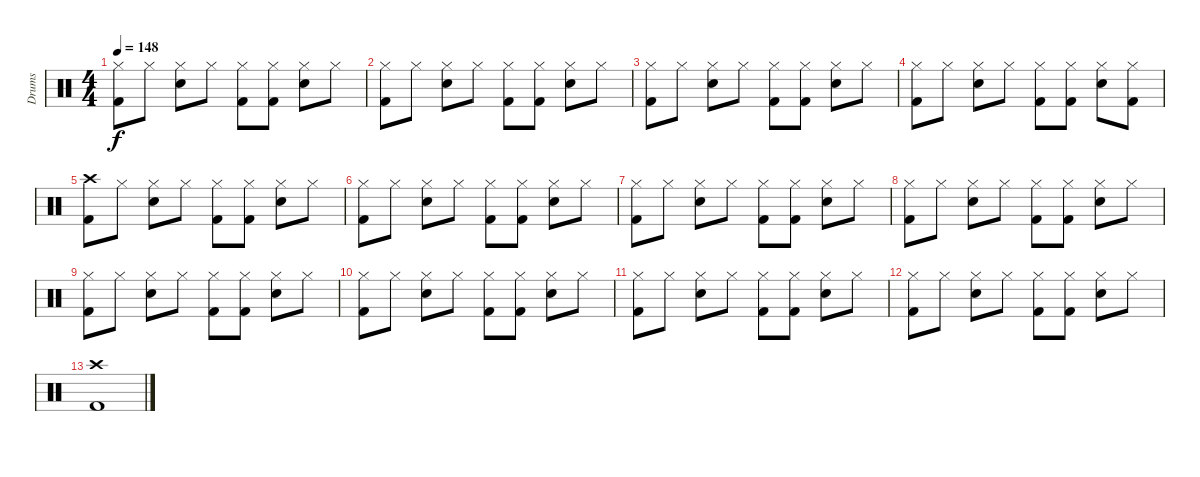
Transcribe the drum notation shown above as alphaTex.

\track ("Drums " "Drums ") {instrument percussion}
\staff {score}
\articulation defaults
\ts (4 4)
\tempo 148
\clef neutral
\ks c
("Hi-Hat (closed)" "Kick (hit) 2").8{dy f} "Hi-Hat (closed)".8 ("Hi-Hat (closed)" "Snare (hit) 2").8 "Hi-Hat (closed)".8 ("Hi-Hat (closed)" "Kick (hit) 2").8 ("Hi-Hat (closed)" "Kick (hit) 2").8 ("Hi-Hat (closed)" "Snare (hit) 2").8 "Hi-Hat (closed)".8 |
("Hi-Hat (closed)" "Kick (hit) 2").8 "Hi-Hat (closed)".8 ("Hi-Hat (closed)" "Snare (hit) 2").8 "Hi-Hat (closed)".8 ("Hi-Hat (closed)" "Kick (hit) 2").8 ("Hi-Hat (closed)" "Kick (hit) 2").8 ("Hi-Hat (closed)" "Snare (hit) 2").8 "Hi-Hat (closed)".8 |
("Hi-Hat (closed)" "Kick (hit) 2").8 "Hi-Hat (closed)".8 ("Hi-Hat (closed)" "Snare (hit) 2").8 "Hi-Hat (closed)".8 ("Hi-Hat (closed)" "Kick (hit) 2").8 ("Hi-Hat (closed)" "Kick (hit) 2").8 ("Hi-Hat (closed)" "Snare (hit) 2").8 "Hi-Hat (closed)".8 |
("Hi-Hat (closed)" "Kick (hit) 2").8 "Hi-Hat (closed)".8 ("Hi-Hat (closed)" "Snare (hit) 2").8 "Hi-Hat (closed)".8 ("Hi-Hat (closed)" "Kick (hit) 2").8 ("Hi-Hat (closed)" "Kick (hit) 2").8 ("Hi-Hat (closed)" "Snare (hit) 2").8 ("Hi-Hat (closed)" "Kick (hit) 2").8 |
("Crash high (hit)" "Kick (hit) 2").8 "Hi-Hat (closed)".8 ("Hi-Hat (closed)" "Snare (hit) 2").8 "Hi-Hat (closed)".8 ("Hi-Hat (closed)" "Kick (hit) 2").8 ("Hi-Hat (closed)" "Kick (hit) 2").8 ("Hi-Hat (closed)" "Snare (hit) 2").8 "Hi-Hat (closed)".8 |
("Hi-Hat (closed)" "Kick (hit) 2").8 "Hi-Hat (closed)".8 ("Hi-Hat (closed)" "Snare (hit) 2").8 "Hi-Hat (closed)".8 ("Hi-Hat (closed)" "Kick (hit) 2").8 ("Hi-Hat (closed)" "Kick (hit) 2").8 ("Hi-Hat (closed)" "Snare (hit) 2").8 "Hi-Hat (closed)".8 |
("Hi-Hat (closed)" "Kick (hit) 2").8 "Hi-Hat (closed)".8 ("Hi-Hat (closed)" "Snare (hit) 2").8 "Hi-Hat (closed)".8 ("Hi-Hat (closed)" "Kick (hit) 2").8 ("Hi-Hat (closed)" "Kick (hit) 2").8 ("Hi-Hat (closed)" "Snare (hit) 2").8 "Hi-Hat (closed)".8 |
("Hi-Hat (closed)" "Kick (hit) 2").8 "Hi-Hat (closed)".8 ("Hi-Hat (closed)" "Snare (hit) 2").8 "Hi-Hat (closed)".8 ("Hi-Hat (closed)" "Kick (hit) 2").8 ("Hi-Hat (closed)" "Kick (hit) 2").8 ("Hi-Hat (closed)" "Snare (hit) 2").8 "Hi-Hat (closed)".8 |
("Hi-Hat (closed)" "Kick (hit) 2").8 "Hi-Hat (closed)".8 ("Hi-Hat (closed)" "Snare (hit) 2").8 "Hi-Hat (closed)".8 ("Hi-Hat (closed)" "Kick (hit) 2").8 ("Hi-Hat (closed)" "Kick (hit) 2").8 ("Hi-Hat (closed)" "Snare (hit) 2").8 "Hi-Hat (closed)".8 |
("Hi-Hat (closed)" "Kick (hit) 2").8 "Hi-Hat (closed)".8 ("Hi-Hat (closed)" "Snare (hit) 2").8 "Hi-Hat (closed)".8 ("Hi-Hat (closed)" "Kick (hit) 2").8 ("Hi-Hat (closed)" "Kick (hit) 2").8 ("Hi-Hat (closed)" "Snare (hit) 2").8 "Hi-Hat (closed)".8 |
("Hi-Hat (closed)" "Kick (hit) 2").8 "Hi-Hat (closed)".8 ("Hi-Hat (closed)" "Snare (hit) 2").8 "Hi-Hat (closed)".8 ("Hi-Hat (closed)" "Kick (hit) 2").8 ("Hi-Hat (closed)" "Kick (hit) 2").8 ("Hi-Hat (closed)" "Snare (hit) 2").8 "Hi-Hat (closed)".8 |
("Hi-Hat (closed)" "Kick (hit) 2").8 "Hi-Hat (closed)".8 ("Hi-Hat (closed)" "Snare (hit) 2").8 "Hi-Hat (closed)".8 ("Hi-Hat (closed)" "Kick (hit) 2").8 ("Hi-Hat (closed)" "Kick (hit) 2").8 ("Hi-Hat (closed)" "Snare (hit) 2").8 "Hi-Hat (closed)".8 |
("Crash high (hit)" "Kick (hit) 2").1
